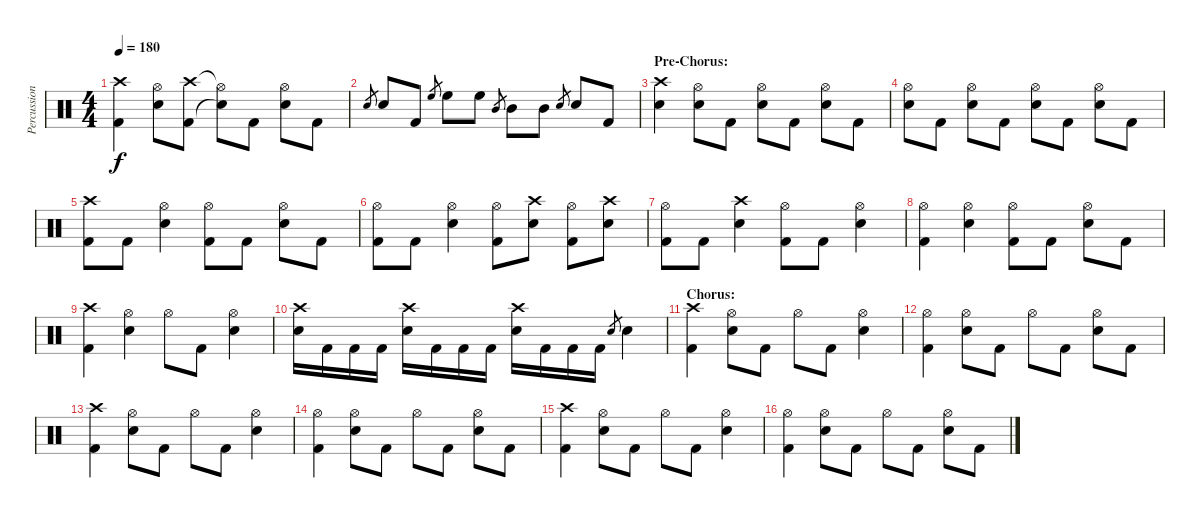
\track ("Percussion" "Percussion") {instrument percussion}
\staff {score}
\articulation defaults
\ts (4 4)
\tempo 180
\clef neutral
\ks c
("Crash high (hit)" "Kick (hit) 2").4{dy f} ("Hi-Hat (open)" "Snare (hit) 2").8 ("Crash high (hit)" "Kick (hit) 2").8 ("Hi-Hat (open)"{t} "Snare (hit)"{t}).8 "Kick (hit) 2".8 ("Hi-Hat (open)" "Snare (hit) 2").8 "Kick (hit) 2".8 |
"Snare (hit) 2".8{gr} "Snare (hit) 2".8 "Kick (hit) 2".8 "High Floor Tom (hit)".8{gr} "High Floor Tom (hit)".8 "High Floor Tom (hit)".8 "Mid Tom (hit)".8{gr} "Mid Tom (hit)".8 "Mid Tom (hit)".8 "Snare (hit) 2".8{gr} "Snare (hit) 2".8 "Kick (hit) 2".8 |
\section ("" "Pre-Chorus:")
("Crash high (hit)" "Snare (hit) 2").4 ("Hi-Hat (open)" "Snare (hit) 2").8 "Kick (hit) 2".8 ("Hi-Hat (open)" "Snare (hit) 2").8 "Kick (hit) 2".8 ("Hi-Hat (open)" "Snare (hit) 2").8 "Kick (hit) 2".8 |
("Hi-Hat (open)" "Snare (hit) 2").8 "Kick (hit) 2".8 ("Hi-Hat (open)" "Snare (hit) 2").8 "Kick (hit) 2".8 ("Hi-Hat (open)" "Snare (hit) 2").8 "Kick (hit) 2".8 ("Hi-Hat (open)" "Snare (hit) 2").8 "Kick (hit) 2".8 |
("Crash high (hit)" "Kick (hit) 2").8 "Kick (hit) 2".8 ("Hi-Hat (open)" "Snare (hit) 2").4 ("Hi-Hat (open)" "Kick (hit) 2").8 "Kick (hit) 2".8 ("Hi-Hat (open)" "Snare (hit) 2").8 "Kick (hit) 2".8 |
("Hi-Hat (open)" "Kick (hit) 2").8 "Kick (hit) 2".8 ("Hi-Hat (open)" "Snare (hit) 2").4 ("Hi-Hat (open)" "Kick (hit) 2").8 ("Crash high (hit)" "Snare (hit) 2").8 ("Hi-Hat (open)" "Kick (hit) 2").8 ("Crash high (hit)" "Snare (hit) 2").8 |
("Hi-Hat (open)" "Kick (hit) 2").8 "Kick (hit) 2".8 ("Crash high (hit)" "Snare (hit) 2").4 ("Hi-Hat (open)" "Kick (hit) 2").8 "Kick (hit) 2".8 ("Hi-Hat (open)" "Snare (hit) 2").4 |
("Hi-Hat (open)" "Kick (hit) 2").4 ("Hi-Hat (open)" "Snare (hit) 2").4 ("Hi-Hat (open)" "Kick (hit) 2").8 "Kick (hit) 2".8 ("Hi-Hat (open)" "Snare (hit) 2").8 "Kick (hit) 2".8 |
("Crash high (hit)" "Kick (hit) 2").4 ("Hi-Hat (open)" "Snare (hit) 2").4 "Hi-Hat (open)".8 "Kick (hit) 2".8 ("Hi-Hat (open)" "Snare (hit) 2").4 |
("Crash high (hit)" "Snare (hit) 2").16 "Kick (hit) 2".16 "Kick (hit) 2".16 "Kick (hit) 2".16 ("Crash high (hit)" "Snare (hit) 2").16 "Kick (hit) 2".16 "Kick (hit) 2".16 "Kick (hit) 2".16 ("Crash high (hit)" "Snare (hit) 2").16 "Kick (hit) 2".16 "Kick (hit) 2".16 "Kick (hit) 2".16 "Snare (hit) 2".8{gr} "Snare (hit) 2".4 |
\section ("" "Chorus:")
("Crash high (hit)" "Kick (hit) 2").4 ("Hi-Hat (open)" "Snare (hit) 2").8 "Kick (hit) 2".8 "Hi-Hat (open)".8 "Kick (hit) 2".8 ("Hi-Hat (open)" "Snare (hit) 2").4 |
("Hi-Hat (open)" "Kick (hit) 2").4 ("Hi-Hat (open)" "Snare (hit) 2").8 "Kick (hit) 2".8 "Hi-Hat (open)".8 "Kick (hit) 2".8 ("Hi-Hat (open)" "Snare (hit) 2").8 "Kick (hit) 2".8 |
("Crash high (hit)" "Kick (hit) 2").4 ("Hi-Hat (open)" "Snare (hit) 2").8 "Kick (hit) 2".8 "Hi-Hat (open)".8 "Kick (hit) 2".8 ("Hi-Hat (open)" "Snare (hit) 2").4 |
("Hi-Hat (open)" "Kick (hit) 2").4 ("Hi-Hat (open)" "Snare (hit) 2").8 "Kick (hit) 2".8 "Hi-Hat (open)".8 "Kick (hit) 2".8 ("Hi-Hat (open)" "Snare (hit) 2").8 "Kick (hit) 2".8 |
("Crash high (hit)" "Kick (hit) 2").4 ("Hi-Hat (open)" "Snare (hit) 2").8 "Kick (hit) 2".8 "Hi-Hat (open)".8 "Kick (hit) 2".8 ("Hi-Hat (open)" "Snare (hit) 2").4 |
("Hi-Hat (open)" "Kick (hit) 2").4 ("Hi-Hat (open)" "Snare (hit) 2").8 "Kick (hit) 2".8 "Hi-Hat (open)".8 "Kick (hit) 2".8 ("Hi-Hat (open)" "Snare (hit) 2").8 "Kick (hit) 2".8
